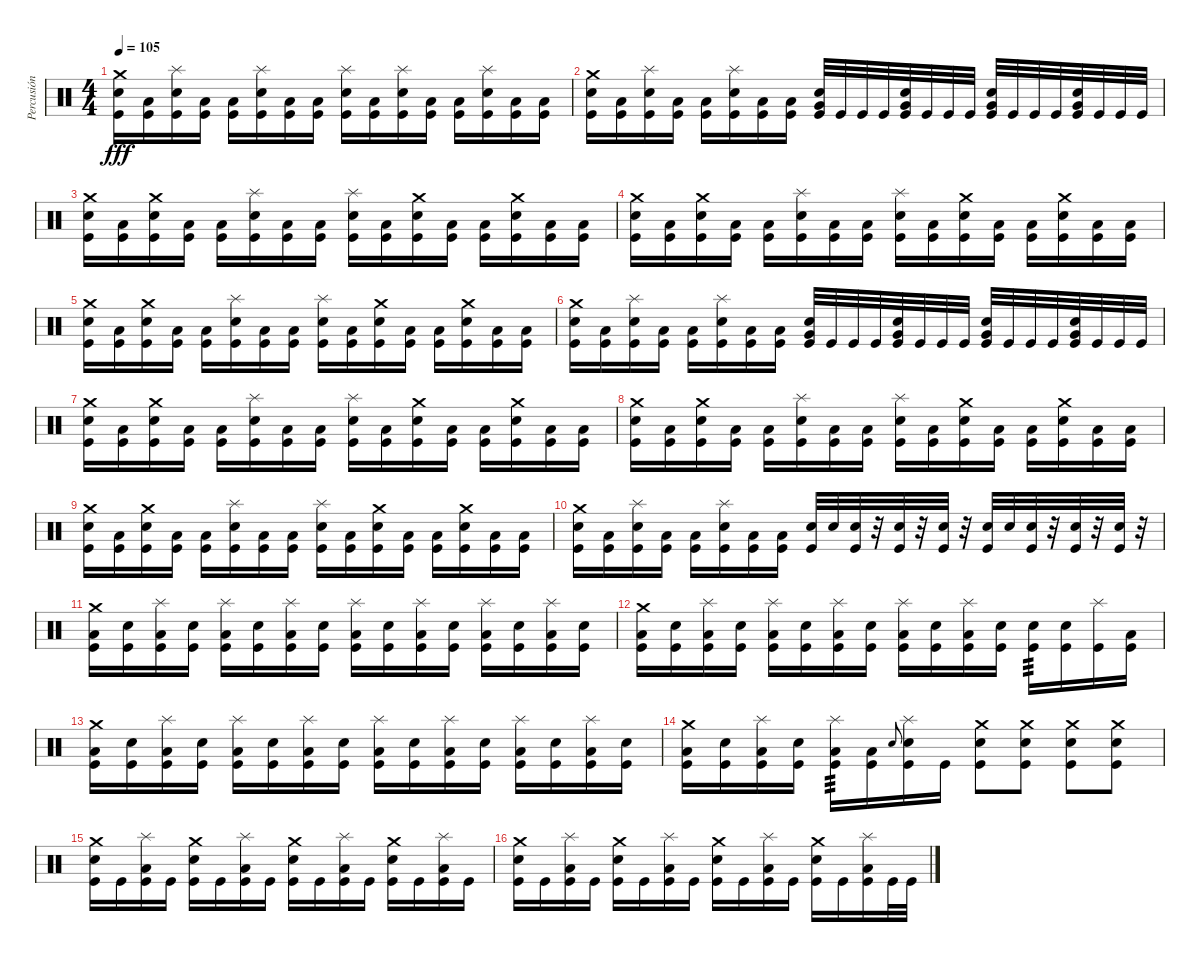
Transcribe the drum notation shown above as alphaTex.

\track ("Percusión" "Percusión") {instrument percussion}
\staff {score}
\articulation defaults
\ts (4 4)
\tempo 105
\clef neutral
\ks c
("Crash medium (hit)" "Snare (hit) 2" "Kick (hit)").16{dy fff} ("Low Floor Tom (hit)" "Kick (hit)").16 ("Splash (hit)" "Snare (hit) 2" "Kick (hit)").16 ("Low Floor Tom (hit)" "Kick (hit)").16 ("Low Floor Tom (hit)" "Kick (hit)").16 ("Splash (hit)" "Snare (hit) 2" "Kick (hit)").16 ("Low Floor Tom (hit)" "Kick (hit)").16 ("Low Floor Tom (hit)" "Kick (hit)").16 ("Splash (hit)" "Snare (hit) 2" "Kick (hit)").16 ("Low Floor Tom (hit)" "Kick (hit)").16 ("Splash (hit)" "Snare (hit) 2" "Kick (hit)").16 ("Low Floor Tom (hit)" "Kick (hit)").16 ("Low Floor Tom (hit)" "Kick (hit)").16 ("Splash (hit)" "Snare (hit) 2" "Kick (hit)").16 ("Low Floor Tom (hit)" "Kick (hit)").16 ("Low Floor Tom (hit)" "Kick (hit)").16 |
("Crash medium (hit)" "Snare (hit) 2" "Kick (hit)").16 ("Low Floor Tom (hit)" "Kick (hit)").16 ("Splash (hit)" "Snare (hit) 2" "Kick (hit)").16 ("Low Floor Tom (hit)" "Kick (hit)").16 ("Low Floor Tom (hit)" "Kick (hit)").16 ("Splash (hit)" "Snare (hit) 2" "Kick (hit)").16 ("Low Floor Tom (hit)" "Kick (hit)").16 ("Low Floor Tom (hit)" "Kick (hit)").16 ("Snare (hit) 2" "Very Low Tom (hit)" "Kick (hit)").32 "Kick (hit)".32 "Kick (hit)".32 "Kick (hit)".32 ("Snare (hit) 2" "Very Low Tom (hit)" "Kick (hit)").32 "Kick (hit)".32 "Kick (hit)".32 "Kick (hit)".32 ("Snare (hit) 2" "Very Low Tom (hit)" "Kick (hit)").32 "Kick (hit)".32 "Kick (hit)".32 "Kick (hit)".32 ("Snare (hit) 2" "Very Low Tom (hit)" "Kick (hit)").32 "Kick (hit)".32 "Kick (hit)".32 "Kick (hit)".32 |
("Crash medium (hit)" "Snare (hit) 2" "Kick (hit)").16 ("Low Floor Tom (hit)" "Kick (hit)").16 ("Crash medium (hit)" "Snare (hit) 2" "Kick (hit)").16 ("Low Floor Tom (hit)" "Kick (hit)").16 ("Low Floor Tom (hit)" "Kick (hit)").16 ("Splash (hit)" "Snare (hit) 2" "Kick (hit)").16 ("Low Floor Tom (hit)" "Kick (hit)").16 ("Low Floor Tom (hit)" "Kick (hit)").16 ("Splash (hit)" "Snare (hit) 2" "Kick (hit)").16 ("Low Floor Tom (hit)" "Kick (hit)").16 ("Crash medium (hit)" "Snare (hit) 2" "Kick (hit)").16 ("Low Floor Tom (hit)" "Kick (hit)").16 ("Low Floor Tom (hit)" "Kick (hit)").16 ("Crash medium (hit)" "Snare (hit) 2" "Kick (hit)").16 ("Low Floor Tom (hit)" "Kick (hit)").16 ("Low Floor Tom (hit)" "Kick (hit)").16 |
("Crash medium (hit)" "Snare (hit) 2" "Kick (hit)").16 ("Low Floor Tom (hit)" "Kick (hit)").16 ("Crash medium (hit)" "Snare (hit) 2" "Kick (hit)").16 ("Low Floor Tom (hit)" "Kick (hit)").16 ("Low Floor Tom (hit)" "Kick (hit)").16 ("Splash (hit)" "Snare (hit) 2" "Kick (hit)").16 ("Low Floor Tom (hit)" "Kick (hit)").16 ("Low Floor Tom (hit)" "Kick (hit)").16 ("Splash (hit)" "Snare (hit) 2" "Kick (hit)").16 ("Low Floor Tom (hit)" "Kick (hit)").16 ("Crash medium (hit)" "Snare (hit) 2" "Kick (hit)").16 ("Low Floor Tom (hit)" "Kick (hit)").16 ("Low Floor Tom (hit)" "Kick (hit)").16 ("Crash medium (hit)" "Snare (hit) 2" "Kick (hit)").16 ("Low Floor Tom (hit)" "Kick (hit)").16 ("Low Floor Tom (hit)" "Kick (hit)").16 |
("Crash medium (hit)" "Snare (hit) 2" "Kick (hit)").16 ("Low Floor Tom (hit)" "Kick (hit)").16 ("Crash medium (hit)" "Snare (hit) 2" "Kick (hit)").16 ("Low Floor Tom (hit)" "Kick (hit)").16 ("Low Floor Tom (hit)" "Kick (hit)").16 ("Splash (hit)" "Snare (hit) 2" "Kick (hit)").16 ("Low Floor Tom (hit)" "Kick (hit)").16 ("Low Floor Tom (hit)" "Kick (hit)").16 ("Splash (hit)" "Snare (hit) 2" "Kick (hit)").16 ("Low Floor Tom (hit)" "Kick (hit)").16 ("Crash medium (hit)" "Snare (hit) 2" "Kick (hit)").16 ("Low Floor Tom (hit)" "Kick (hit)").16 ("Low Floor Tom (hit)" "Kick (hit)").16 ("Crash medium (hit)" "Snare (hit) 2" "Kick (hit)").16 ("Low Floor Tom (hit)" "Kick (hit)").16 ("Low Floor Tom (hit)" "Kick (hit)").16 |
("Crash medium (hit)" "Snare (hit) 2" "Kick (hit)").16 ("Low Floor Tom (hit)" "Kick (hit)").16 ("Splash (hit)" "Snare (hit) 2" "Kick (hit)").16 ("Low Floor Tom (hit)" "Kick (hit)").16 ("Low Floor Tom (hit)" "Kick (hit)").16 ("Splash (hit)" "Snare (hit) 2" "Kick (hit)").16 ("Low Floor Tom (hit)" "Kick (hit)").16 ("Low Floor Tom (hit)" "Kick (hit)").16 ("Snare (hit) 2" "Very Low Tom (hit)" "Kick (hit)").32 "Kick (hit)".32 "Kick (hit)".32 "Kick (hit)".32 ("Snare (hit) 2" "Very Low Tom (hit)" "Kick (hit)").32 "Kick (hit)".32 "Kick (hit)".32 "Kick (hit)".32 ("Snare (hit) 2" "Very Low Tom (hit)" "Kick (hit)").32 "Kick (hit)".32 "Kick (hit)".32 "Kick (hit)".32 ("Snare (hit) 2" "Very Low Tom (hit)" "Kick (hit)").32 "Kick (hit)".32 "Kick (hit)".32 "Kick (hit)".32 |
("Crash medium (hit)" "Snare (hit) 2" "Kick (hit)").16 ("Low Floor Tom (hit)" "Kick (hit)").16 ("Crash medium (hit)" "Snare (hit) 2" "Kick (hit)").16 ("Low Floor Tom (hit)" "Kick (hit)").16 ("Low Floor Tom (hit)" "Kick (hit)").16 ("Splash (hit)" "Snare (hit) 2" "Kick (hit)").16 ("Low Floor Tom (hit)" "Kick (hit)").16 ("Low Floor Tom (hit)" "Kick (hit)").16 ("Splash (hit)" "Snare (hit) 2" "Kick (hit)").16 ("Low Floor Tom (hit)" "Kick (hit)").16 ("Crash medium (hit)" "Snare (hit) 2" "Kick (hit)").16 ("Low Floor Tom (hit)" "Kick (hit)").16 ("Low Floor Tom (hit)" "Kick (hit)").16 ("Crash medium (hit)" "Snare (hit) 2" "Kick (hit)").16 ("Low Floor Tom (hit)" "Kick (hit)").16 ("Low Floor Tom (hit)" "Kick (hit)").16 |
("Crash medium (hit)" "Snare (hit) 2" "Kick (hit)").16 ("Low Floor Tom (hit)" "Kick (hit)").16 ("Crash medium (hit)" "Snare (hit) 2" "Kick (hit)").16 ("Low Floor Tom (hit)" "Kick (hit)").16 ("Low Floor Tom (hit)" "Kick (hit)").16 ("Splash (hit)" "Snare (hit) 2" "Kick (hit)").16 ("Low Floor Tom (hit)" "Kick (hit)").16 ("Low Floor Tom (hit)" "Kick (hit)").16 ("Splash (hit)" "Snare (hit) 2" "Kick (hit)").16 ("Low Floor Tom (hit)" "Kick (hit)").16 ("Crash medium (hit)" "Snare (hit) 2" "Kick (hit)").16 ("Low Floor Tom (hit)" "Kick (hit)").16 ("Low Floor Tom (hit)" "Kick (hit)").16 ("Crash medium (hit)" "Snare (hit) 2" "Kick (hit)").16 ("Low Floor Tom (hit)" "Kick (hit)").16 ("Low Floor Tom (hit)" "Kick (hit)").16 |
("Crash medium (hit)" "Snare (hit) 2" "Kick (hit)").16 ("Low Floor Tom (hit)" "Kick (hit)").16 ("Crash medium (hit)" "Snare (hit) 2" "Kick (hit)").16 ("Low Floor Tom (hit)" "Kick (hit)").16 ("Low Floor Tom (hit)" "Kick (hit)").16 ("Splash (hit)" "Snare (hit) 2" "Kick (hit)").16 ("Low Floor Tom (hit)" "Kick (hit)").16 ("Low Floor Tom (hit)" "Kick (hit)").16 ("Splash (hit)" "Snare (hit) 2" "Kick (hit)").16 ("Low Floor Tom (hit)" "Kick (hit)").16 ("Crash medium (hit)" "Snare (hit) 2" "Kick (hit)").16 ("Low Floor Tom (hit)" "Kick (hit)").16 ("Low Floor Tom (hit)" "Kick (hit)").16 ("Crash medium (hit)" "Snare (hit) 2" "Kick (hit)").16 ("Low Floor Tom (hit)" "Kick (hit)").16 ("Low Floor Tom (hit)" "Kick (hit)").16 |
("Crash medium (hit)" "Snare (hit) 2" "Kick (hit)").16 ("Low Floor Tom (hit)" "Kick (hit)").16 ("Splash (hit)" "Snare (hit) 2" "Kick (hit)").16 ("Low Floor Tom (hit)" "Kick (hit)").16 ("Low Floor Tom (hit)" "Kick (hit)").16 ("Splash (hit)" "Snare (hit) 2" "Kick (hit)").16 ("Low Floor Tom (hit)" "Kick (hit)").16 ("Low Floor Tom (hit)" "Kick (hit)").16 ("Snare (hit) 2" "Kick (hit)").32 "Snare (hit) 2".32 ("Snare (hit) 2" "Kick (hit)").32 r.32 ("Snare (hit) 2" "Kick (hit)").32 r.32 ("Snare (hit) 2" "Kick (hit)").32 r.32 ("Snare (hit) 2" "Kick (hit)").32 "Snare (hit) 2".32 ("Snare (hit) 2" "Kick (hit)").32 r.32 ("Snare (hit) 2" "Kick (hit)").32 r.32 ("Snare (hit) 2" "Kick (hit)").32 r.32 |
("Crash medium (hit)" "Low Floor Tom (hit)" "Kick (hit)").16 ("Snare (hit) 2" "Kick (hit)").16 ("Splash (hit)" "Low Floor Tom (hit)" "Kick (hit)").16 ("Snare (hit) 2" "Kick (hit)").16 ("Splash (hit)" "Low Floor Tom (hit)" "Kick (hit)").16 ("Snare (hit) 2" "Kick (hit)").16 ("Splash (hit)" "Low Floor Tom (hit)" "Kick (hit)").16 ("Snare (hit) 2" "Kick (hit)").16 ("Splash (hit)" "Low Floor Tom (hit)" "Kick (hit)").16 ("Snare (hit) 2" "Kick (hit)").16 ("Splash (hit)" "Low Floor Tom (hit)" "Kick (hit)").16 ("Snare (hit) 2" "Kick (hit)").16 ("Splash (hit)" "Low Floor Tom (hit)" "Kick (hit)").16 ("Snare (hit) 2" "Kick (hit)").16 ("Splash (hit)" "Low Floor Tom (hit)" "Kick (hit)").16 ("Snare (hit) 2" "Kick (hit)").16 |
("Crash medium (hit)" "Low Floor Tom (hit)" "Kick (hit)").16 ("Snare (hit) 2" "Kick (hit)").16 ("Splash (hit)" "Low Floor Tom (hit)" "Kick (hit)").16 ("Snare (hit) 2" "Kick (hit)").16 ("Splash (hit)" "Low Floor Tom (hit)" "Kick (hit)").16 ("Snare (hit) 2" "Kick (hit)").16 ("Splash (hit)" "Low Floor Tom (hit)" "Kick (hit)").16 ("Snare (hit) 2" "Kick (hit)").16 ("Splash (hit)" "Low Floor Tom (hit)" "Kick (hit)").16 ("Snare (hit) 2" "Kick (hit)").16 ("Splash (hit)" "Low Floor Tom (hit)" "Kick (hit)").16 ("Snare (hit) 2" "Kick (hit)").16 ("Snare (hit) 2" "Kick (hit)").16{tp 3} ("Snare (hit) 2" "Kick (hit)").16 ("Splash (hit)" "Kick (hit)").16 ("Low Floor Tom (hit)" "Kick (hit)").16 |
("Crash medium (hit)" "Low Floor Tom (hit)" "Kick (hit)").16 ("Snare (hit) 2" "Kick (hit)").16 ("Splash (hit)" "Low Floor Tom (hit)" "Kick (hit)").16 ("Snare (hit) 2" "Kick (hit)").16 ("Splash (hit)" "Low Floor Tom (hit)" "Kick (hit)").16 ("Snare (hit) 2" "Kick (hit)").16 ("Splash (hit)" "Low Floor Tom (hit)" "Kick (hit)").16 ("Snare (hit) 2" "Kick (hit)").16 ("Splash (hit)" "Low Floor Tom (hit)" "Kick (hit)").16 ("Snare (hit) 2" "Kick (hit)").16 ("Splash (hit)" "Low Floor Tom (hit)" "Kick (hit)").16 ("Snare (hit) 2" "Kick (hit)").16 ("Splash (hit)" "Low Floor Tom (hit)" "Kick (hit)").16 ("Snare (hit) 2" "Kick (hit)").16 ("Splash (hit)" "Low Floor Tom (hit)" "Kick (hit)").16 ("Snare (hit) 2" "Kick (hit)").16 |
("Crash medium (hit)" "Low Floor Tom (hit)" "Kick (hit)").16 ("Snare (hit) 2" "Kick (hit)").16 ("Splash (hit)" "Low Floor Tom (hit)" "Kick (hit)").16 ("Snare (hit) 2" "Kick (hit)").16 ("Splash (hit)" "Low Floor Tom (hit)" "Kick (hit)").16{tp 3} ("Low Floor Tom (hit)" "Kick (hit)").16 "Snare (hit) 2".8{gr onbeat} ("Splash (hit)" "Snare (hit) 2" "Kick (hit)").16 "Kick (hit)".16 ("Crash medium (hit)" "Snare (hit) 2" "Kick (hit)").8 ("Crash medium (hit)" "Snare (hit) 2" "Kick (hit)").8 ("Crash medium (hit)" "Snare (hit) 2" "Kick (hit)").8 ("Crash medium (hit)" "Snare (hit) 2" "Kick (hit)").8 |
("Crash medium (hit)" "Snare (hit) 2" "Kick (hit)").16 "Kick (hit)".16 ("Splash (hit)" "Low Floor Tom (hit)" "Kick (hit)").16 "Kick (hit)".16 ("Crash medium (hit)" "Snare (hit) 2" "Kick (hit)").16 "Kick (hit)".16 ("Splash (hit)" "Low Floor Tom (hit)" "Kick (hit)").16 "Kick (hit)".16 ("Crash medium (hit)" "Snare (hit) 2" "Kick (hit)").16 "Kick (hit)".16 ("Splash (hit)" "Low Floor Tom (hit)" "Kick (hit)").16 "Kick (hit)".16 ("Crash medium (hit)" "Snare (hit) 2" "Kick (hit)").16 "Kick (hit)".16 ("Splash (hit)" "Low Floor Tom (hit)" "Kick (hit)").16 "Kick (hit)".16 |
("Crash medium (hit)" "Snare (hit) 2" "Kick (hit)").16 "Kick (hit)".16 ("Splash (hit)" "Low Floor Tom (hit)" "Kick (hit)").16 "Kick (hit)".16 ("Crash medium (hit)" "Snare (hit) 2" "Kick (hit)").16 "Kick (hit)".16 ("Splash (hit)" "Low Floor Tom (hit)" "Kick (hit)").16 "Kick (hit)".16 ("Crash medium (hit)" "Snare (hit) 2" "Kick (hit)").16 "Kick (hit)".16 ("Splash (hit)" "Low Floor Tom (hit)" "Kick (hit)").16 "Kick (hit)".16 ("Crash medium (hit)" "Snare (hit) 2" "Kick (hit)").16 "Kick (hit)".16 ("Splash (hit)" "Low Floor Tom (hit)" "Kick (hit)").16 "Kick (hit)".32 "Kick (hit)".32
